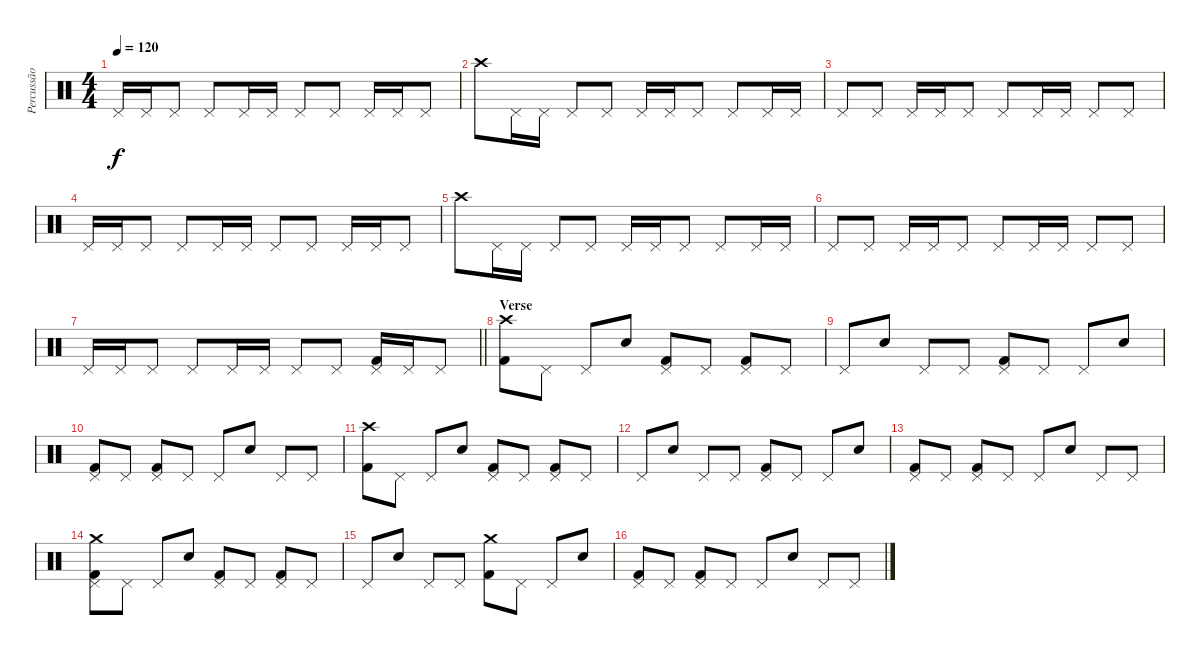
\track ("Percussão" "Percussão") {instrument percussion}
\staff {score}
\articulation defaults
\ts (4 4)
\tempo 120
\clef neutral
\ks c "Pedal Hi-Hat (hit)".16{dy f} "Pedal Hi-Hat (hit)".16 "Pedal Hi-Hat (hit)".8 "Pedal Hi-Hat (hit)".8 "Pedal Hi-Hat (hit)".16 "Pedal Hi-Hat (hit)".16 "Pedal Hi-Hat (hit)".8 "Pedal Hi-Hat (hit)".8 "Pedal Hi-Hat (hit)".16 "Pedal Hi-Hat (hit)".16 "Pedal Hi-Hat (hit)".8
|
"Crash high (hit)".8 "Pedal Hi-Hat (hit)".16 "Pedal Hi-Hat (hit)".16 "Pedal Hi-Hat (hit)".8 "Pedal Hi-Hat (hit)".8 "Pedal Hi-Hat (hit)".16 "Pedal Hi-Hat (hit)".16 "Pedal Hi-Hat (hit)".8 "Pedal Hi-Hat (hit)".8 "Pedal Hi-Hat (hit)".16 "Pedal Hi-Hat (hit)".16 |
"Pedal Hi-Hat (hit)".8 "Pedal Hi-Hat (hit)".8 "Pedal Hi-Hat (hit)".16 "Pedal Hi-Hat (hit)".16 "Pedal Hi-Hat (hit)".8 "Pedal Hi-Hat (hit)".8 "Pedal Hi-Hat (hit)".16 "Pedal Hi-Hat (hit)".16 "Pedal Hi-Hat (hit)".8 "Pedal Hi-Hat (hit)".8 |
"Pedal Hi-Hat (hit)".16 "Pedal Hi-Hat (hit)".16 "Pedal Hi-Hat (hit)".8 "Pedal Hi-Hat (hit)".8 "Pedal Hi-Hat (hit)".16 "Pedal Hi-Hat (hit)".16 "Pedal Hi-Hat (hit)".8 "Pedal Hi-Hat (hit)".8 "Pedal Hi-Hat (hit)".16 "Pedal Hi-Hat (hit)".16 "Pedal Hi-Hat (hit)".8 |
"Crash high (hit)".8 "Pedal Hi-Hat (hit)".16 "Pedal Hi-Hat (hit)".16 "Pedal Hi-Hat (hit)".8 "Pedal Hi-Hat (hit)".8 "Pedal Hi-Hat (hit)".16 "Pedal Hi-Hat (hit)".16 "Pedal Hi-Hat (hit)".8 "Pedal Hi-Hat (hit)".8 "Pedal Hi-Hat (hit)".16 "Pedal Hi-Hat (hit)".16 |
"Pedal Hi-Hat (hit)".8 "Pedal Hi-Hat (hit)".8 "Pedal Hi-Hat (hit)".16 "Pedal Hi-Hat (hit)".16 "Pedal Hi-Hat (hit)".8 "Pedal Hi-Hat (hit)".8 "Pedal Hi-Hat (hit)".16 "Pedal Hi-Hat (hit)".16 "Pedal Hi-Hat (hit)".8 "Pedal Hi-Hat (hit)".8 |
\barLineRight lightlight "Pedal Hi-Hat (hit)".16 "Pedal Hi-Hat (hit)".16 "Pedal Hi-Hat (hit)".8 "Pedal Hi-Hat (hit)".8 "Pedal Hi-Hat (hit)".16 "Pedal Hi-Hat (hit)".16 "Pedal Hi-Hat (hit)".8 "Pedal Hi-Hat (hit)".8
("Pedal Hi-Hat (hit)" "Kick (hit) 2").16 "Pedal Hi-Hat (hit)".16 "Pedal Hi-Hat (hit)".8 |
\section ("" "Verse")
("Crash high (hit)" "Kick (hit) 2").8 "Pedal Hi-Hat (hit)".8 "Pedal Hi-Hat (hit)".8 "Snare (hit) 2".8 ("Pedal Hi-Hat (hit)" "Kick (hit) 2").8 "Pedal Hi-Hat (hit)".8 ("Pedal Hi-Hat (hit)" "Kick (hit) 2").8 "Pedal Hi-Hat (hit)".8 |
"Pedal Hi-Hat (hit)".8 "Snare (hit) 2".8 "Pedal Hi-Hat (hit)".8 "Pedal Hi-Hat (hit)".8 ("Pedal Hi-Hat (hit)" "Kick (hit) 2").8 "Pedal Hi-Hat (hit)".8 "Pedal Hi-Hat (hit)".8 "Snare (hit) 2".8 |
("Pedal Hi-Hat (hit)" "Kick (hit) 2").8 "Pedal Hi-Hat (hit)".8 ("Pedal Hi-Hat (hit)" "Kick (hit) 2").8 "Pedal Hi-Hat (hit)".8 "Pedal Hi-Hat (hit)".8 "Snare (hit) 2".8 "Pedal Hi-Hat (hit)".8 "Pedal Hi-Hat (hit)".8 |
("Crash high (hit)" "Kick (hit) 2").8 "Pedal Hi-Hat (hit)".8 "Pedal Hi-Hat (hit)".8 "Snare (hit) 2".8 ("Pedal Hi-Hat (hit)" "Kick (hit) 2").8 "Pedal Hi-Hat (hit)".8 ("Pedal Hi-Hat (hit)" "Kick (hit) 2").8 "Pedal Hi-Hat (hit)".8 |
"Pedal Hi-Hat (hit)".8 "Snare (hit) 2".8 "Pedal Hi-Hat (hit)".8 "Pedal Hi-Hat (hit)".8 ("Pedal Hi-Hat (hit)" "Kick (hit) 2").8 "Pedal Hi-Hat (hit)".8 "Pedal Hi-Hat (hit)".8 "Snare (hit) 2".8 |
("Pedal Hi-Hat (hit)" "Kick (hit) 2").8 "Pedal Hi-Hat (hit)".8 ("Pedal Hi-Hat (hit)" "Kick (hit) 2").8 "Pedal Hi-Hat (hit)".8 "Pedal Hi-Hat (hit)".8 "Snare (hit) 2".8 "Pedal Hi-Hat (hit)".8 "Pedal Hi-Hat (hit)".8 |
("Pedal Hi-Hat (hit)" "Crash medium (hit)" "Kick (hit) 2").8 "Pedal Hi-Hat (hit)".8 "Pedal Hi-Hat (hit)".8 "Snare (hit) 2".8 ("Pedal Hi-Hat (hit)" "Kick (hit) 2").8 "Pedal Hi-Hat (hit)".8 ("Pedal Hi-Hat (hit)" "Kick (hit) 2").8 "Pedal Hi-Hat (hit)".8 |
"Pedal Hi-Hat (hit)".8 "Snare (hit) 2".8 "Pedal Hi-Hat (hit)".8 "Pedal Hi-Hat (hit)".8 ("Crash medium (hit)" "Kick (hit) 2").8 "Pedal Hi-Hat (hit)".8 "Pedal Hi-Hat (hit)".8 "Snare (hit) 2".8 |
("Pedal Hi-Hat (hit)" "Kick (hit) 2").8 "Pedal Hi-Hat (hit)".8 ("Pedal Hi-Hat (hit)" "Kick (hit) 2").8 "Pedal Hi-Hat (hit)".8 "Pedal Hi-Hat (hit)".8 "Snare (hit) 2".8 "Pedal Hi-Hat (hit)".8 "Pedal Hi-Hat (hit)".8
